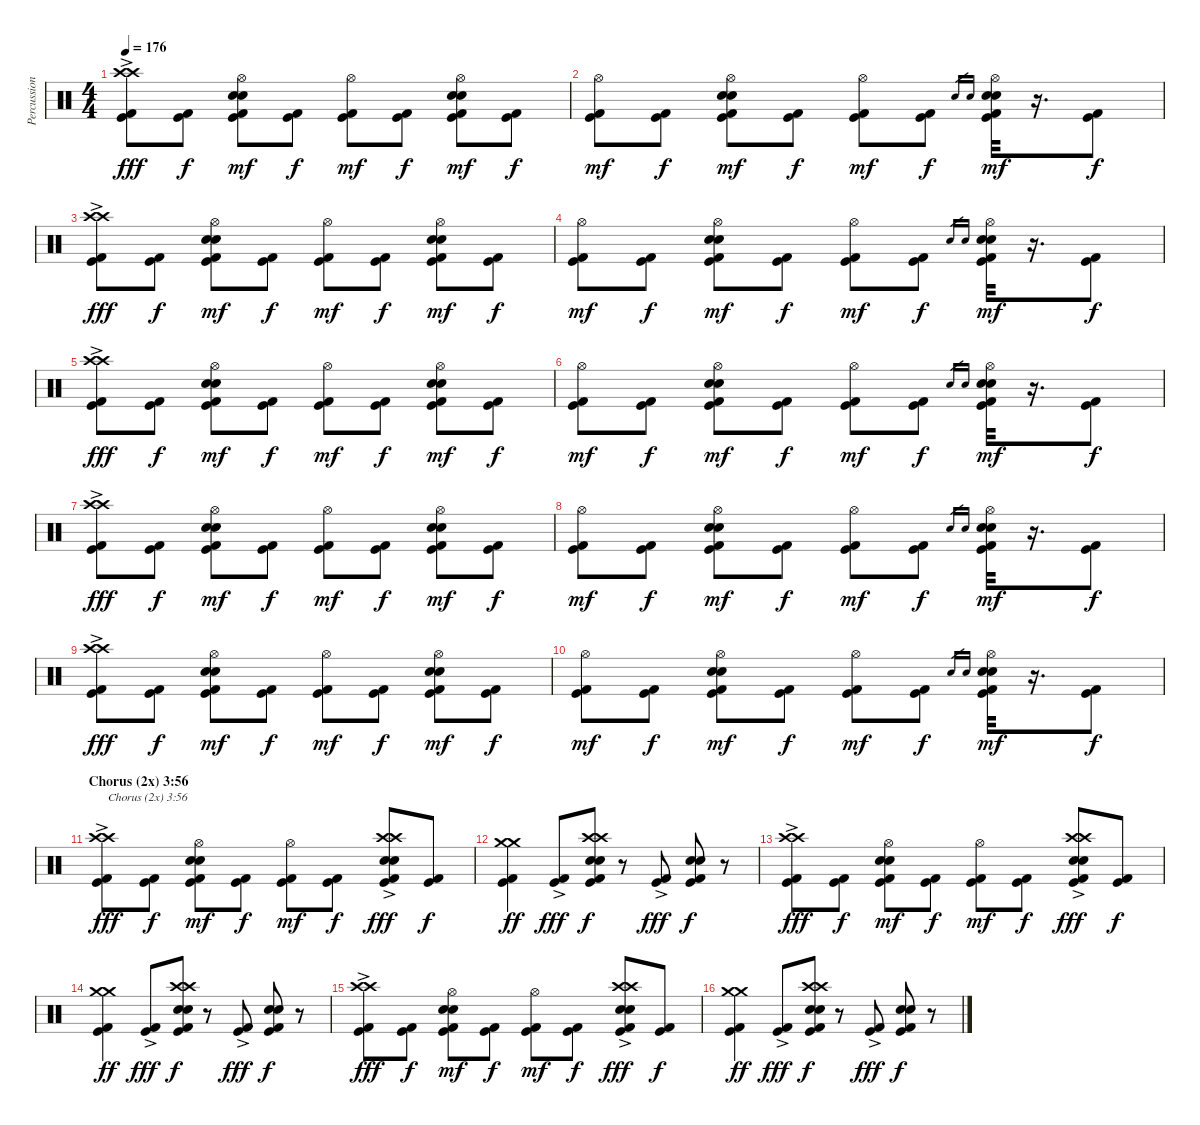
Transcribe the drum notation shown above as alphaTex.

\track ("Percussion" "Percussion") {instrument percussion}
\staff {score}
\articulation defaults
\ts (4 4)
\tempo 176
\clef neutral
\ks c
("Kick (hit) 2" "Kick (hit)" "Crash high (hit)"{ac} "Crash high (hit)"{ac}).8{dy fff} ("Kick (hit) 2" "Kick (hit)").8{dy f} ("Kick (hit) 2" "Kick (hit)" "Electric Snare (hit)" "Snare (hit) 2" "Hi-Hat (open)").8{dy mf} ("Kick (hit) 2" "Kick (hit)").8{dy f} ("Kick (hit) 2" "Kick (hit)" "Hi-Hat (open)").8{dy mf} ("Kick (hit) 2" "Kick (hit)").8{dy f} ("Kick (hit) 2" "Kick (hit)" "Electric Snare (hit)" "Snare (hit) 2" "Hi-Hat (open)").8{dy mf} ("Kick (hit) 2" "Kick (hit)").8{dy f} |
("Kick (hit) 2" "Kick (hit)" "Hi-Hat (open)").8{dy mf} ("Kick (hit) 2" "Kick (hit)").8{dy f} ("Kick (hit) 2" "Kick (hit)" "Electric Snare (hit)" "Snare (hit) 2" "Hi-Hat (open)").8{dy mf} ("Kick (hit) 2" "Kick (hit)").8{dy f} ("Kick (hit) 2" "Kick (hit)" "Hi-Hat (open)").8{dy mf} ("Kick (hit) 2" "Kick (hit)").8{dy f} "Electric Snare (hit)".16{gr} "Snare (hit) 2".16{gr} ("Kick (hit) 2" "Kick (hit)" "Electric Snare (hit)" "Snare (hit) 2" "Hi-Hat (open)").32{dy mf} r.16{d} ("Kick (hit) 2" "Kick (hit)").8{dy f} |
("Kick (hit) 2" "Kick (hit)" "Crash high (hit)"{ac} "Crash high (hit)"{ac}).8{dy fff} ("Kick (hit) 2" "Kick (hit)").8{dy f} ("Kick (hit) 2" "Kick (hit)" "Electric Snare (hit)" "Snare (hit) 2" "Hi-Hat (open)").8{dy mf} ("Kick (hit) 2" "Kick (hit)").8{dy f} ("Kick (hit) 2" "Kick (hit)" "Hi-Hat (open)").8{dy mf} ("Kick (hit) 2" "Kick (hit)").8{dy f} ("Kick (hit) 2" "Kick (hit)" "Electric Snare (hit)" "Snare (hit) 2" "Hi-Hat (open)").8{dy mf} ("Kick (hit) 2" "Kick (hit)").8{dy f} |
("Kick (hit) 2" "Kick (hit)" "Hi-Hat (open)").8{dy mf} ("Kick (hit) 2" "Kick (hit)").8{dy f} ("Kick (hit) 2" "Kick (hit)" "Electric Snare (hit)" "Snare (hit) 2" "Hi-Hat (open)").8{dy mf} ("Kick (hit) 2" "Kick (hit)").8{dy f} ("Kick (hit) 2" "Kick (hit)" "Hi-Hat (open)").8{dy mf} ("Kick (hit) 2" "Kick (hit)").8{dy f} "Electric Snare (hit)".16{gr} "Snare (hit) 2".16{gr} ("Kick (hit) 2" "Kick (hit)" "Electric Snare (hit)" "Snare (hit) 2" "Hi-Hat (open)").32{dy mf} r.16{d} ("Kick (hit) 2" "Kick (hit)").8{dy f} |
("Kick (hit) 2" "Kick (hit)" "Crash high (hit)"{ac} "Crash high (hit)"{ac}).8{dy fff} ("Kick (hit) 2" "Kick (hit)").8{dy f} ("Kick (hit) 2" "Kick (hit)" "Electric Snare (hit)" "Snare (hit) 2" "Hi-Hat (open)").8{dy mf} ("Kick (hit) 2" "Kick (hit)").8{dy f} ("Kick (hit) 2" "Kick (hit)" "Hi-Hat (open)").8{dy mf} ("Kick (hit) 2" "Kick (hit)").8{dy f} ("Kick (hit) 2" "Kick (hit)" "Electric Snare (hit)" "Snare (hit) 2" "Hi-Hat (open)").8{dy mf} ("Kick (hit) 2" "Kick (hit)").8{dy f} |
("Kick (hit) 2" "Kick (hit)" "Hi-Hat (open)").8{dy mf} ("Kick (hit) 2" "Kick (hit)").8{dy f} ("Kick (hit) 2" "Kick (hit)" "Electric Snare (hit)" "Snare (hit) 2" "Hi-Hat (open)").8{dy mf} ("Kick (hit) 2" "Kick (hit)").8{dy f} ("Kick (hit) 2" "Kick (hit)" "Hi-Hat (open)").8{dy mf} ("Kick (hit) 2" "Kick (hit)").8{dy f} "Electric Snare (hit)".16{gr} "Snare (hit) 2".16{gr} ("Kick (hit) 2" "Kick (hit)" "Electric Snare (hit)" "Snare (hit) 2" "Hi-Hat (open)").32{dy mf} r.16{d} ("Kick (hit) 2" "Kick (hit)").8{dy f} |
("Kick (hit) 2" "Kick (hit)" "Crash high (hit)"{ac} "Crash high (hit)"{ac}).8{dy fff} ("Kick (hit) 2" "Kick (hit)").8{dy f} ("Kick (hit) 2" "Kick (hit)" "Electric Snare (hit)" "Snare (hit) 2" "Hi-Hat (open)").8{dy mf} ("Kick (hit) 2" "Kick (hit)").8{dy f} ("Kick (hit) 2" "Kick (hit)" "Hi-Hat (open)").8{dy mf} ("Kick (hit) 2" "Kick (hit)").8{dy f} ("Kick (hit) 2" "Kick (hit)" "Electric Snare (hit)" "Snare (hit) 2" "Hi-Hat (open)").8{dy mf} ("Kick (hit) 2" "Kick (hit)").8{dy f} |
("Kick (hit) 2" "Kick (hit)" "Hi-Hat (open)").8{dy mf} ("Kick (hit) 2" "Kick (hit)").8{dy f} ("Kick (hit) 2" "Kick (hit)" "Electric Snare (hit)" "Snare (hit) 2" "Hi-Hat (open)").8{dy mf} ("Kick (hit) 2" "Kick (hit)").8{dy f} ("Kick (hit) 2" "Kick (hit)" "Hi-Hat (open)").8{dy mf} ("Kick (hit) 2" "Kick (hit)").8{dy f} "Electric Snare (hit)".16{gr} "Snare (hit) 2".16{gr} ("Kick (hit) 2" "Kick (hit)" "Electric Snare (hit)" "Snare (hit) 2" "Hi-Hat (open)").32{dy mf} r.16{d} ("Kick (hit) 2" "Kick (hit)").8{dy f} |
("Kick (hit) 2" "Kick (hit)" "Crash high (hit)"{ac} "Crash high (hit)"{ac}).8{dy fff} ("Kick (hit) 2" "Kick (hit)").8{dy f} ("Kick (hit) 2" "Kick (hit)" "Electric Snare (hit)" "Snare (hit) 2" "Hi-Hat (open)").8{dy mf} ("Kick (hit) 2" "Kick (hit)").8{dy f} ("Kick (hit) 2" "Kick (hit)" "Hi-Hat (open)").8{dy mf} ("Kick (hit) 2" "Kick (hit)").8{dy f} ("Kick (hit) 2" "Kick (hit)" "Electric Snare (hit)" "Snare (hit) 2" "Hi-Hat (open)").8{dy mf} ("Kick (hit) 2" "Kick (hit)").8{dy f} |
("Kick (hit) 2" "Kick (hit)" "Hi-Hat (open)").8{dy mf} ("Kick (hit) 2" "Kick (hit)").8{dy f} ("Kick (hit) 2" "Kick (hit)" "Electric Snare (hit)" "Snare (hit) 2" "Hi-Hat (open)").8{dy mf} ("Kick (hit) 2" "Kick (hit)").8{dy f} ("Kick (hit) 2" "Kick (hit)" "Hi-Hat (open)").8{dy mf} ("Kick (hit) 2" "Kick (hit)").8{dy f} "Electric Snare (hit)".16{gr} "Snare (hit) 2".16{gr} ("Kick (hit) 2" "Kick (hit)" "Electric Snare (hit)" "Snare (hit) 2" "Hi-Hat (open)").32{dy mf} r.16{d} ("Kick (hit) 2" "Kick (hit)").8{dy f} |
\section ("" "Chorus (2x) 3:56")
("Kick (hit) 2" "Kick (hit)" "Crash high (hit)"{ac} "Crash high (hit)"{ac}).8{txt "Chorus (2x) 3:56" dy fff} ("Kick (hit) 2" "Kick (hit)").8{dy f} ("Kick (hit) 2" "Kick (hit)" "Electric Snare (hit)" "Snare (hit) 2" "Hi-Hat (open)").8{dy mf} ("Kick (hit) 2" "Kick (hit)").8{dy f} ("Kick (hit) 2" "Kick (hit)" "Hi-Hat (open)").8{dy mf} ("Kick (hit) 2" "Kick (hit)").8{dy f} ("Kick (hit) 2" "Kick (hit)" "Electric Snare (hit)" "Snare (hit) 2" "Crash high (hit)"{ac} "Crash high (hit)"{ac}).8{dy fff} ("Kick (hit) 2" "Kick (hit)").8{dy f} |
("Kick (hit) 2" "Kick (hit)" "Crash medium (hit)" "Crash medium (hit)").4{dy ff} ("Kick (hit) 2"{ac} "Kick (hit)"{ac}).8{dy fff} ("Kick (hit) 2" "Kick (hit)" "Electric Snare (hit)" "Snare (hit) 2" "Crash high (hit)" "Crash high (hit)").8{dy f} r.8 ("Kick (hit) 2"{ac} "Kick (hit)"{ac}).8{dy fff} ("Kick (hit) 2" "Kick (hit)" "Electric Snare (hit)" "Snare (hit) 2").8{dy f} r.8 |
("Kick (hit) 2" "Kick (hit)" "Crash high (hit)"{ac} "Crash high (hit)"{ac}).8{dy fff} ("Kick (hit) 2" "Kick (hit)").8{dy f} ("Kick (hit) 2" "Kick (hit)" "Electric Snare (hit)" "Snare (hit) 2" "Hi-Hat (open)").8{dy mf} ("Kick (hit) 2" "Kick (hit)").8{dy f} ("Kick (hit) 2" "Kick (hit)" "Hi-Hat (open)").8{dy mf} ("Kick (hit) 2" "Kick (hit)").8{dy f} ("Kick (hit) 2" "Kick (hit)" "Electric Snare (hit)" "Snare (hit) 2" "Crash high (hit)"{ac} "Crash high (hit)"{ac}).8{dy fff} ("Kick (hit) 2" "Kick (hit)").8{dy f} |
("Kick (hit) 2" "Kick (hit)" "Crash medium (hit)" "Crash medium (hit)").4{dy ff} ("Kick (hit) 2"{ac} "Kick (hit)"{ac}).8{dy fff} ("Kick (hit) 2" "Kick (hit)" "Electric Snare (hit)" "Snare (hit) 2" "Crash high (hit)" "Crash high (hit)").8{dy f} r.8 ("Kick (hit) 2"{ac} "Kick (hit)"{ac}).8{dy fff} ("Kick (hit) 2" "Kick (hit)" "Electric Snare (hit)" "Snare (hit) 2").8{dy f} r.8 |
("Kick (hit) 2" "Kick (hit)" "Crash high (hit)"{ac} "Crash high (hit)"{ac}).8{dy fff} ("Kick (hit) 2" "Kick (hit)").8{dy f} ("Kick (hit) 2" "Kick (hit)" "Electric Snare (hit)" "Snare (hit) 2" "Hi-Hat (open)").8{dy mf} ("Kick (hit) 2" "Kick (hit)").8{dy f} ("Kick (hit) 2" "Kick (hit)" "Hi-Hat (open)").8{dy mf} ("Kick (hit) 2" "Kick (hit)").8{dy f} ("Kick (hit) 2" "Kick (hit)" "Electric Snare (hit)" "Snare (hit) 2" "Crash high (hit)"{ac} "Crash high (hit)"{ac}).8{dy fff} ("Kick (hit) 2" "Kick (hit)").8{dy f} |
("Kick (hit) 2" "Kick (hit)" "Crash medium (hit)" "Crash medium (hit)").4{dy ff} ("Kick (hit) 2"{ac} "Kick (hit)"{ac}).8{dy fff} ("Kick (hit) 2" "Kick (hit)" "Electric Snare (hit)" "Snare (hit) 2" "Crash high (hit)" "Crash high (hit)").8{dy f} r.8 ("Kick (hit) 2"{ac} "Kick (hit)"{ac}).8{dy fff} ("Kick (hit) 2" "Kick (hit)" "Electric Snare (hit)" "Snare (hit) 2").8{dy f} r.8
